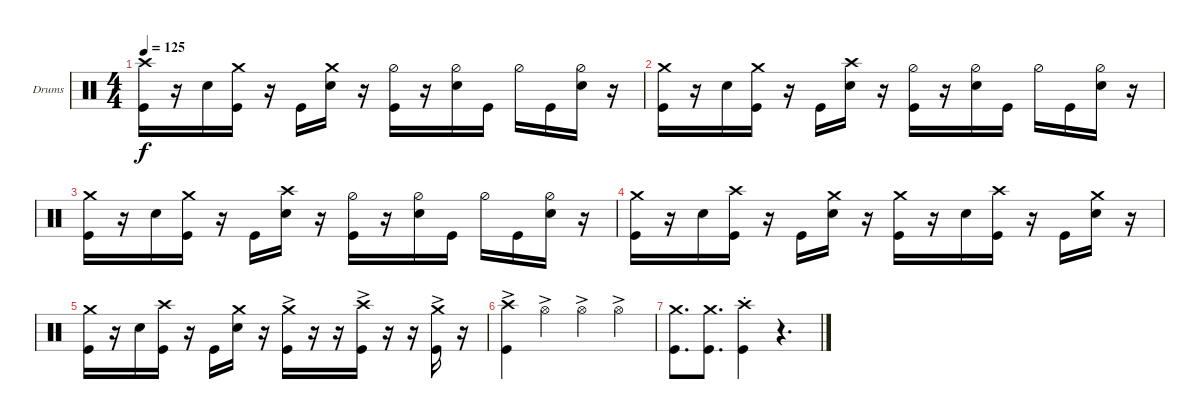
\defaultSystemsLayout 4
\bracketExtendMode groupsimilarinstruments
\firstSystemTrackNameOrientation horizontal
\otherSystemsTrackNameOrientation horizontal
\track ("Lorenzo Milani" "Drums") {instrument percussion}
\staff {score}
\articulation defaults
\ts (4 4)
\tempo 125
\clef neutral
\ks c
("Kick (hit)" "Crash high (hit)").16{dy f} r.16 "Snare (hit) 2".16 ("Kick (hit)" "Crash medium (hit)").16 r.16 "Kick (hit)".16 ("Snare (hit) 2" "Crash medium (hit)").16 r.16 ("Kick (hit)" "Hi-Hat (half)").16 r.16 ("Snare (hit) 2" "Hi-Hat (half)").16 "Kick (hit)".16 "Hi-Hat (half)".16 "Kick (hit)".16 ("Snare (hit) 2" "Hi-Hat (half)").16 r.16 |
("Kick (hit)" "Crash medium (hit)").16 r.16 "Snare (hit) 2".16 ("Kick (hit)" "Crash medium (hit)").16 r.16 "Kick (hit)".16 ("Snare (hit) 2" "Crash high (hit)").16 r.16 ("Kick (hit)" "Hi-Hat (half)").16 r.16 ("Snare (hit) 2" "Hi-Hat (half)").16 "Kick (hit)".16 "Hi-Hat (half)".16 "Kick (hit)".16 ("Snare (hit) 2" "Hi-Hat (half)").16 r.16 |
("Kick (hit)" "Crash medium (hit)").16 r.16 "Snare (hit) 2".16 ("Kick (hit)" "Crash medium (hit)").16 r.16 "Kick (hit)".16 ("Snare (hit) 2" "Crash high (hit)").16 r.16 ("Kick (hit)" "Hi-Hat (half)").16 r.16 ("Snare (hit) 2" "Hi-Hat (half)").16 "Kick (hit)".16 "Hi-Hat (half)".16 "Kick (hit)".16 ("Snare (hit) 2" "Hi-Hat (half)").16 r.16 |
("Kick (hit)" "Crash medium (hit)").16 r.16 "Snare (hit) 2".16 ("Kick (hit)" "Crash high (hit)").16 r.16 "Kick (hit)".16 ("Snare (hit) 2" "Crash medium (hit)").16 r.16 ("Kick (hit)" "Crash medium (hit)").16 r.16 "Snare (hit) 2".16 ("Kick (hit)" "Crash high (hit)").16 r.16 "Kick (hit)".16 ("Snare (hit) 2" "Crash medium (hit)").16 r.16 |
("Kick (hit)" "Crash medium (hit)").16 r.16 "Snare (hit) 2".16 ("Kick (hit)" "Crash high (hit)").16 r.16 "Kick (hit)".16 ("Snare (hit) 2" "Crash medium (hit)").16 r.16 ("Kick (hit)"{ac} "Crash medium (hit)").16 r.16 r.16 ("Kick (hit)"{ac} "Crash high (hit)").16 r.16 r.16 ("Kick (hit)"{ac} "Crash medium (hit)"{ac}).16 r.16 |
("Kick (hit)"{ac} "Crash high (hit)").4 "Hi-Hat (open)"{ac}.4 "Hi-Hat (open)"{ac}.4 "Hi-Hat (open)"{ac}.4 |
("Kick (hit)" "Crash medium (hit)").8{d} ("Kick (hit)" "Crash medium (hit)").8{d} ("Kick (hit)"{st} "Crash high (hit)"{st}).4 r.4{d}
